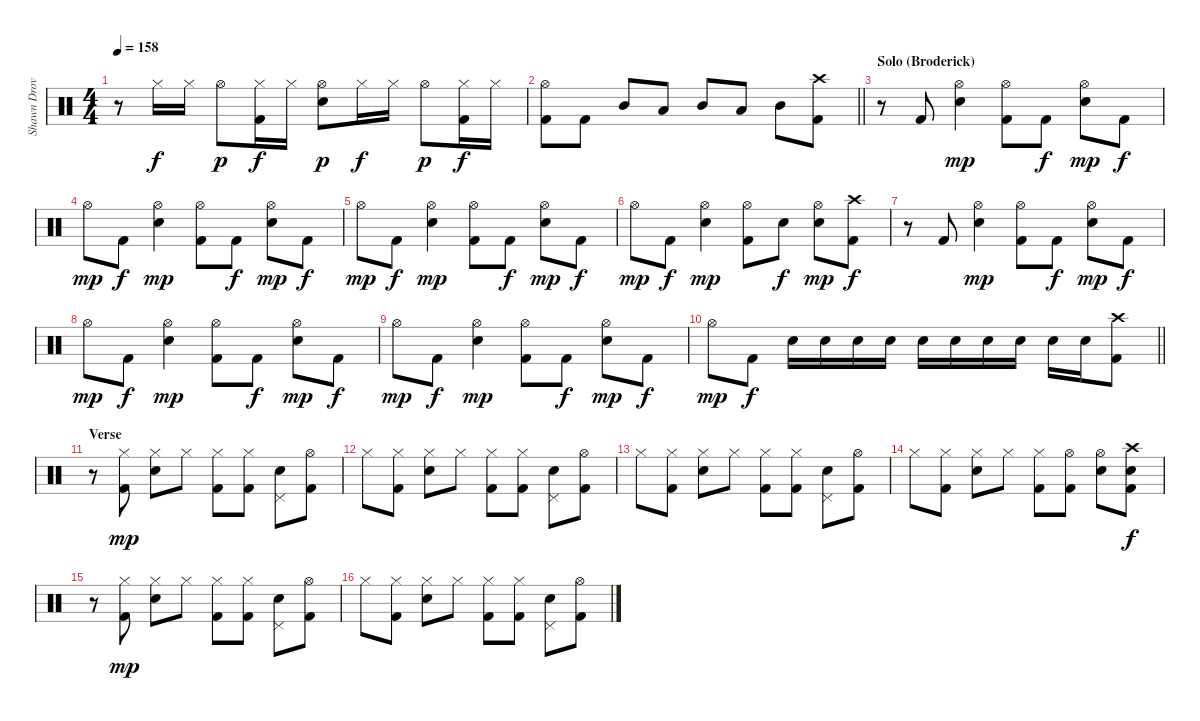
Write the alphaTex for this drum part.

\track ("Shawn Drover" "Shawn Drov") {instrument percussion}
\staff
\articulation defaults
\ts (4 4)
\tempo 158
\clef neutral
\ks c
r.8{dy f} "Hi-Hat (closed)".16 "Hi-Hat (closed)".16 "Hi-Hat (open)".8{dy p} ("Hi-Hat (closed)" "Kick (hit) 2").16{dy f} "Hi-Hat (closed)".16 ("Hi-Hat (open)" "Snare (hit) 2").8{dy p} "Hi-Hat (closed)".16{dy f} "Hi-Hat (closed)".16 "Hi-Hat (open)".8{dy p} ("Hi-Hat (closed)" "Kick (hit) 2").16{dy f} "Hi-Hat (closed)".16 |
\barLineRight lightlight
("Hi-Hat (open)" "Kick (hit) 2").8 "Kick (hit) 2".8 "Mid Tom (hit)".8 "Low Tom (hit)".8 "Mid Tom (hit)".8 "Low Tom (hit)".8 "Mid Tom (hit)".8 ("Crash high (hit)" "Kick (hit) 2").8 |
\section ("" "Solo (Broderick)")
r.8 "Kick (hit) 2".8 ("Hi-Hat (open)" "Snare (hit) 2").4{dy mp} ("Hi-Hat (open)" "Kick (hit) 2").8 "Kick (hit) 2".8{dy f} ("Hi-Hat (open)" "Snare (hit) 2").8{dy mp} "Kick (hit) 2".8{dy f} |
"Hi-Hat (open)".8{dy mp} "Kick (hit) 2".8{dy f} ("Hi-Hat (open)" "Snare (hit) 2").4{dy mp} ("Hi-Hat (open)" "Kick (hit) 2").8 "Kick (hit) 2".8{dy f} ("Hi-Hat (open)" "Snare (hit) 2").8{dy mp} "Kick (hit) 2".8{dy f} |
"Hi-Hat (open)".8{dy mp} "Kick (hit) 2".8{dy f} ("Hi-Hat (open)" "Snare (hit) 2").4{dy mp} ("Hi-Hat (open)" "Kick (hit) 2").8 "Kick (hit) 2".8{dy f} ("Hi-Hat (open)" "Snare (hit) 2").8{dy mp} "Kick (hit) 2".8{dy f} |
"Hi-Hat (open)".8{dy mp} "Kick (hit) 2".8{dy f} ("Hi-Hat (open)" "Snare (hit) 2").4{dy mp} ("Hi-Hat (open)" "Kick (hit) 2").8 "Snare (hit) 2".8{dy f} ("Hi-Hat (open)" "Snare (hit) 2").8{dy mp} ("Crash high (hit)" "Kick (hit) 2").8{dy f} |
r.8 "Kick (hit) 2".8 ("Hi-Hat (open)" "Snare (hit) 2").4{dy mp} ("Hi-Hat (open)" "Kick (hit) 2").8 "Kick (hit) 2".8{dy f} ("Hi-Hat (open)" "Snare (hit) 2").8{dy mp} "Kick (hit) 2".8{dy f} |
"Hi-Hat (open)".8{dy mp} "Kick (hit) 2".8{dy f} ("Hi-Hat (open)" "Snare (hit) 2").4{dy mp} ("Hi-Hat (open)" "Kick (hit) 2").8 "Kick (hit) 2".8{dy f} ("Hi-Hat (open)" "Snare (hit) 2").8{dy mp} "Kick (hit) 2".8{dy f} |
"Hi-Hat (open)".8{dy mp} "Kick (hit) 2".8{dy f} ("Hi-Hat (open)" "Snare (hit) 2").4{dy mp} ("Hi-Hat (open)" "Kick (hit) 2").8 "Kick (hit) 2".8{dy f} ("Hi-Hat (open)" "Snare (hit) 2").8{dy mp} "Kick (hit) 2".8{dy f} |
\barLineRight lightlight "Hi-Hat (open)".8{dy mp} "Kick (hit) 2".8{dy f} "Snare (hit) 2".16 "Snare (hit) 2".16 "Snare (hit) 2".16 "Snare (hit) 2".16 "Snare (hit) 2".16 "Snare (hit) 2".16 "Snare (hit) 2".16 "Snare (hit) 2".16 "Snare (hit) 2".16 "Snare (hit) 2".16
("Crash high (hit)" "Kick (hit) 2").8 |
\section ("" "Verse ")
r.8 ("Hi-Hat (closed)" "Kick (hit) 2").8{dy mp} ("Hi-Hat (closed)" "Snare (hit) 2").8 "Hi-Hat (closed)".8 ("Hi-Hat (closed)" "Kick (hit) 2").8 ("Hi-Hat (closed)" "Kick (hit) 2").8 ("Pedal Hi-Hat (hit)" "Snare (hit) 2").8 ("Hi-Hat (open)" "Kick (hit) 2").8 |
"Hi-Hat (closed)".8 ("Hi-Hat (closed)" "Kick (hit) 2").8 ("Hi-Hat (closed)" "Snare (hit) 2").8 "Hi-Hat (closed)".8 ("Hi-Hat (closed)" "Kick (hit) 2").8 ("Hi-Hat (closed)" "Kick (hit) 2").8 ("Pedal Hi-Hat (hit)" "Snare (hit) 2").8 ("Hi-Hat (open)" "Kick (hit) 2").8 |
"Hi-Hat (closed)".8 ("Hi-Hat (closed)" "Kick (hit) 2").8 ("Hi-Hat (closed)" "Snare (hit) 2").8 "Hi-Hat (closed)".8 ("Hi-Hat (closed)" "Kick (hit) 2").8 ("Hi-Hat (closed)" "Kick (hit) 2").8 ("Pedal Hi-Hat (hit)" "Snare (hit) 2").8 ("Hi-Hat (open)" "Kick (hit) 2").8 |
"Hi-Hat (closed)".8 ("Hi-Hat (closed)" "Kick (hit) 2").8 ("Hi-Hat (closed)" "Snare (hit) 2").8 "Hi-Hat (closed)".8 ("Hi-Hat (closed)" "Kick (hit) 2").8 ("Hi-Hat (open)" "Kick (hit) 2").8 ("Hi-Hat (open)" "Snare (hit) 2").8 ("Crash high (hit)" "Snare (hit) 2" "Kick (hit) 2").8{dy f} |
r.8 ("Hi-Hat (closed)" "Kick (hit) 2").8{dy mp} ("Hi-Hat (closed)" "Snare (hit) 2").8 "Hi-Hat (closed)".8 ("Hi-Hat (closed)" "Kick (hit) 2").8 ("Hi-Hat (closed)" "Kick (hit) 2").8 ("Pedal Hi-Hat (hit)" "Snare (hit) 2").8 ("Hi-Hat (open)" "Kick (hit) 2").8 |
"Hi-Hat (closed)".8 ("Hi-Hat (closed)" "Kick (hit) 2").8 ("Hi-Hat (closed)" "Snare (hit) 2").8 "Hi-Hat (closed)".8 ("Hi-Hat (closed)" "Kick (hit) 2").8 ("Hi-Hat (closed)" "Kick (hit) 2").8 ("Pedal Hi-Hat (hit)" "Snare (hit) 2").8 ("Hi-Hat (open)" "Kick (hit) 2").8
